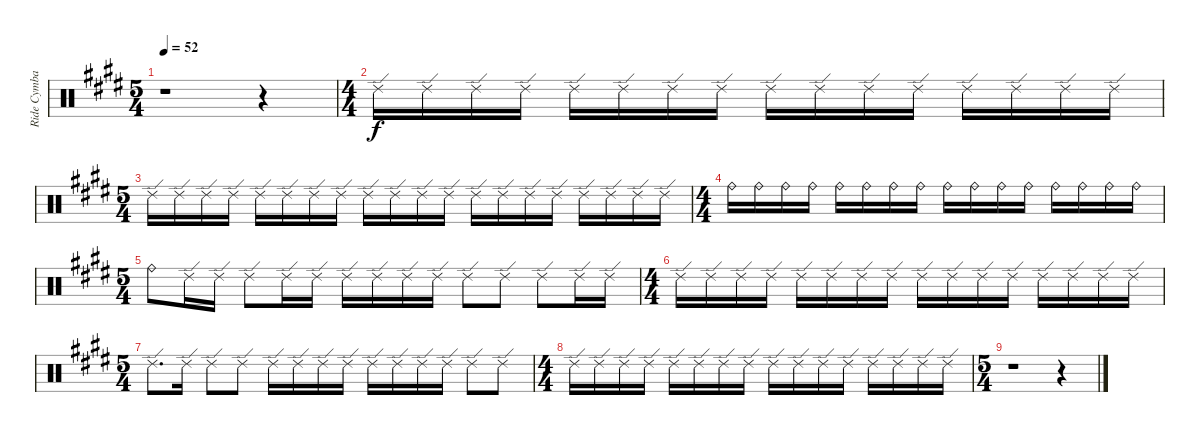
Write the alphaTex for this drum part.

\track ("Ride Cymbal" "Ride Cymba") {instrument percussion}
\staff {score}
\articulation defaults
\ts (5 4)
\tempo 52
\clef neutral
\ks e
r.1{dy f} r.4 |
\ts (4 4)
"Ride (edge) 2".16 "Ride (edge) 2".16 "Ride (edge) 2".16 "Ride (edge) 2".16 "Ride (edge) 2".16 "Ride (edge) 2".16 "Ride (edge) 2".16 "Ride (edge) 2".16 "Ride (edge) 2".16 "Ride (edge) 2".16 "Ride (edge) 2".16 "Ride (edge) 2".16 "Ride (edge) 2".16 "Ride (edge) 2".16 "Ride (edge) 2".16 "Ride (edge) 2".16 |
\ts (5 4)
"Ride (edge) 2".16 "Ride (edge) 2".16 "Ride (edge) 2".16 "Ride (edge) 2".16 "Ride (edge) 2".16 "Ride (edge) 2".16 "Ride (edge) 2".16 "Ride (edge) 2".16 "Ride (edge) 2".16 "Ride (edge) 2".16 "Ride (edge) 2".16 "Ride (edge) 2".16 "Ride (edge) 2".16 "Ride (edge) 2".16 "Ride (edge) 2".16 "Ride (edge) 2".16 "Ride (edge) 2".16 "Ride (edge) 2".16 "Ride (edge) 2".16 "Ride (edge) 2".16 |
\ts (4 4)
"Ride (bell)".16 "Ride (bell)".16 "Ride (bell)".16 "Ride (bell)".16 "Ride (bell)".16 "Ride (bell)".16 "Ride (bell)".16 "Ride (bell)".16 "Ride (bell)".16 "Ride (bell)".16 "Ride (bell)".16 "Ride (bell)".16 "Ride (bell)".16 "Ride (bell)".16 "Ride (bell)".16 "Ride (bell)".16 |
\ts (5 4)
"Ride (bell)".8 "Ride (edge) 2".16 "Ride (edge) 2".16 "Ride (edge) 2".8 "Ride (edge) 2".16 "Ride (edge) 2".16 "Ride (edge) 2".16 "Ride (edge) 2".16 "Ride (edge) 2".16 "Ride (edge) 2".16 "Ride (edge) 2".8 "Ride (edge) 2".8 "Ride (edge) 2".8 "Ride (edge) 2".16 "Ride (edge) 2".16 |
\ts (4 4)
"Ride (edge) 2".16 "Ride (edge) 2".16 "Ride (edge) 2".16 "Ride (edge) 2".16 "Ride (edge) 2".16 "Ride (edge) 2".16 "Ride (edge) 2".16 "Ride (edge) 2".16 "Ride (edge) 2".16 "Ride (edge) 2".16 "Ride (edge) 2".16 "Ride (edge) 2".16 "Ride (edge) 2".16 "Ride (edge) 2".16 "Ride (edge) 2".16 "Ride (edge) 2".16 |
\ts (5 4)
"Ride (edge) 2".8{d} "Ride (edge) 2".16 "Ride (edge) 2".8 "Ride (edge) 2".8 "Ride (edge) 2".16 "Ride (edge) 2".16 "Ride (edge) 2".16 "Ride (edge) 2".16 "Ride (edge) 2".16 "Ride (edge) 2".16 "Ride (edge) 2".16 "Ride (edge) 2".16 "Ride (edge) 2".8 "Ride (edge) 2".8 |
\ts (4 4)
"Ride (edge) 2".16 "Ride (edge) 2".16 "Ride (edge) 2".16 "Ride (edge) 2".16 "Ride (edge) 2".16 "Ride (edge) 2".16 "Ride (edge) 2".16 "Ride (edge) 2".16 "Ride (edge) 2".16 "Ride (edge) 2".16 "Ride (edge) 2".16 "Ride (edge) 2".16 "Ride (edge) 2".16 "Ride (edge) 2".16 "Ride (edge) 2".16 "Ride (edge) 2".16 |
\ts (5 4)
r.1 r.4
